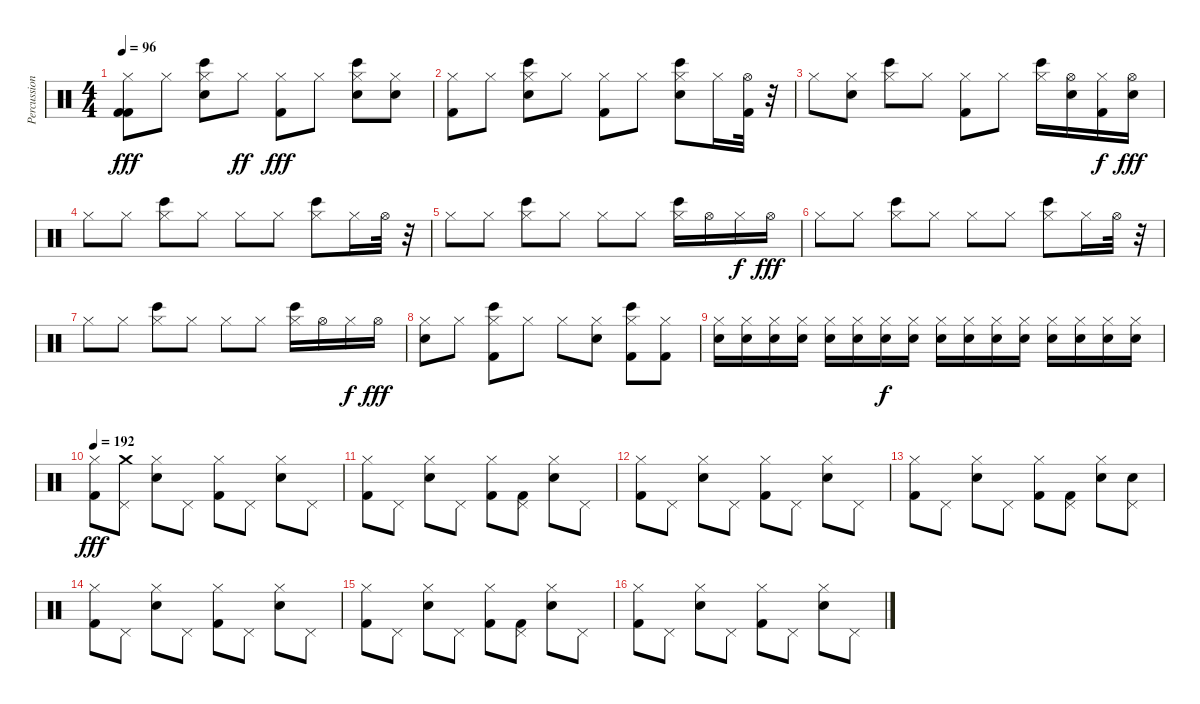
\track ("Percussion" "Percussion") {instrument percussion}
\staff {score}
\articulation defaults
\ts (4 4)
\tempo 96
\clef neutral
\ks c
("Hi-Hat (closed)" "Kick (hit) 2" "Kick (hit) 2").8{dy fff} "Hi-Hat (closed)".8 ("Hi-Hat (closed)" "Bongo High (hit)" "Snare (hit) 2").8 "Hi-Hat (closed)".8{dy ff} ("Hi-Hat (closed)" "Kick (hit) 2").8{dy fff} "Hi-Hat (closed)".8 ("Hi-Hat (closed)" "Bongo High (hit)" "Snare (hit) 2").8 ("Hi-Hat (closed)" "Snare (hit) 2").8 |
("Hi-Hat (closed)" "Kick (hit) 2").8 "Hi-Hat (closed)".8 ("Hi-Hat (closed)" "Bongo High (hit)" "Snare (hit) 2").8 "Hi-Hat (closed)".8 ("Hi-Hat (closed)" "Kick (hit) 2").8 "Hi-Hat (closed)".8 ("Hi-Hat (closed)" "Bongo High (hit)" "Snare (hit) 2").8 "Hi-Hat (closed)".16 ("Hi-Hat (open)" "Kick (hit) 2").32 r.32 |
"Hi-Hat (closed)".8 ("Hi-Hat (closed)" "Snare (hit) 2").8 ("Hi-Hat (closed)" "Bongo High (hit)").8 "Hi-Hat (closed)".8 ("Hi-Hat (closed)" "Kick (hit) 2").8 "Hi-Hat (closed)".8 ("Hi-Hat (closed)" "Bongo High (hit)").16 ("Hi-Hat (open)" "Snare (hit) 2").16 ("Hi-Hat (closed)" "Kick (hit) 2").16{dy f} ("Hi-Hat (open)" "Snare (hit) 2").16{dy fff} |
"Hi-Hat (closed)".8 "Hi-Hat (closed)".8 ("Hi-Hat (closed)" "Bongo High (hit)").8 "Hi-Hat (closed)".8 "Hi-Hat (closed)".8 "Hi-Hat (closed)".8 ("Hi-Hat (closed)" "Bongo High (hit)").8 "Hi-Hat (closed)".16 "Hi-Hat (open)".32 r.32 |
"Hi-Hat (closed)".8 "Hi-Hat (closed)".8 ("Hi-Hat (closed)" "Bongo High (hit)").8 "Hi-Hat (closed)".8 "Hi-Hat (closed)".8 "Hi-Hat (closed)".8 ("Hi-Hat (closed)" "Bongo High (hit)").16 "Hi-Hat (open)".16 "Hi-Hat (closed)".16{dy f} "Hi-Hat (open)".16{dy fff} |
"Hi-Hat (closed)".8 "Hi-Hat (closed)".8 ("Hi-Hat (closed)" "Bongo High (hit)").8 "Hi-Hat (closed)".8 "Hi-Hat (closed)".8 "Hi-Hat (closed)".8 ("Hi-Hat (closed)" "Bongo High (hit)").8 "Hi-Hat (closed)".16 "Hi-Hat (open)".32 r.32 |
"Hi-Hat (closed)".8 "Hi-Hat (closed)".8 ("Hi-Hat (closed)" "Bongo High (hit)").8 "Hi-Hat (closed)".8 "Hi-Hat (closed)".8 "Hi-Hat (closed)".8 ("Hi-Hat (closed)" "Bongo High (hit)").16 "Hi-Hat (open)".16 "Hi-Hat (closed)".16{dy f} "Hi-Hat (open)".16{dy fff} |
("Hi-Hat (closed)" "Snare (hit) 2").8 "Hi-Hat (closed)".8 ("Hi-Hat (closed)" "Bongo High (hit)" "Kick (hit) 2").8 "Hi-Hat (closed)".8 "Hi-Hat (closed)".8 ("Hi-Hat (closed)" "Snare (hit) 2").8 ("Hi-Hat (closed)" "Bongo High (hit)" "Kick (hit) 2").8 ("Hi-Hat (closed)" "Kick (hit) 2").8 |
("Hi-Hat (closed)" "Snare (hit) 2").16 ("Hi-Hat (closed)" "Snare (hit) 2").16 ("Hi-Hat (closed)" "Snare (hit) 2").16 ("Hi-Hat (closed)" "Snare (hit) 2").16 ("Hi-Hat (closed)" "Snare (hit) 2").16 ("Hi-Hat (closed)" "Snare (hit) 2").16 ("Hi-Hat (closed)" "Snare (hit) 2").16{dy f} ("Hi-Hat (closed)" "Snare (hit) 2").16 ("Hi-Hat (closed)" "Snare (hit) 2").16 ("Hi-Hat (closed)" "Snare (hit) 2").16 ("Hi-Hat (closed)" "Snare (hit) 2").16 ("Hi-Hat (closed)" "Snare (hit) 2").16 ("Hi-Hat (closed)" "Snare (hit) 2").16 ("Hi-Hat (closed)" "Snare (hit) 2").16 ("Hi-Hat (closed)" "Snare (hit) 2").16 ("Hi-Hat (closed)" "Snare (hit) 2").16 |
\tempo 192
("Hi-Hat (closed)" "Kick (hit) 2").8{dy fff} ("Pedal Hi-Hat (hit)" "Crash medium (hit)").8 ("Hi-Hat (closed)" "Snare (hit) 2").8 "Pedal Hi-Hat (hit)".8 ("Hi-Hat (closed)" "Kick (hit) 2").8 "Pedal Hi-Hat (hit)".8 ("Hi-Hat (closed)" "Snare (hit) 2").8 "Pedal Hi-Hat (hit)".8 |
("Hi-Hat (closed)" "Kick (hit) 2").8 "Pedal Hi-Hat (hit)".8 ("Hi-Hat (closed)" "Snare (hit) 2").8 "Pedal Hi-Hat (hit)".8 ("Hi-Hat (closed)" "Kick (hit) 2").8 ("Pedal Hi-Hat (hit)" "Kick (hit) 2").8 ("Hi-Hat (closed)" "Snare (hit) 2").8 "Pedal Hi-Hat (hit)".8 |
("Hi-Hat (closed)" "Kick (hit) 2").8 "Pedal Hi-Hat (hit)".8 ("Hi-Hat (closed)" "Snare (hit) 2").8 "Pedal Hi-Hat (hit)".8 ("Hi-Hat (closed)" "Kick (hit) 2").8 "Pedal Hi-Hat (hit)".8 ("Hi-Hat (closed)" "Snare (hit) 2").8 "Pedal Hi-Hat (hit)".8 |
("Hi-Hat (closed)" "Kick (hit) 2").8 "Pedal Hi-Hat (hit)".8 ("Hi-Hat (closed)" "Snare (hit) 2").8 "Pedal Hi-Hat (hit)".8 ("Hi-Hat (closed)" "Kick (hit) 2").8 ("Pedal Hi-Hat (hit)" "Kick (hit) 2").8 ("Hi-Hat (closed)" "Snare (hit) 2").8 ("Pedal Hi-Hat (hit)" "Snare (hit) 2").8 |
("Hi-Hat (closed)" "Kick (hit) 2").8 "Pedal Hi-Hat (hit)".8 ("Hi-Hat (closed)" "Snare (hit) 2").8 "Pedal Hi-Hat (hit)".8 ("Hi-Hat (closed)" "Kick (hit) 2").8 "Pedal Hi-Hat (hit)".8 ("Hi-Hat (closed)" "Snare (hit) 2").8 "Pedal Hi-Hat (hit)".8 |
("Hi-Hat (closed)" "Kick (hit) 2").8 "Pedal Hi-Hat (hit)".8 ("Hi-Hat (closed)" "Snare (hit) 2").8 "Pedal Hi-Hat (hit)".8 ("Hi-Hat (closed)" "Kick (hit) 2").8 ("Pedal Hi-Hat (hit)" "Kick (hit) 2").8 ("Hi-Hat (closed)" "Snare (hit) 2").8 "Pedal Hi-Hat (hit)".8 |
("Hi-Hat (closed)" "Kick (hit) 2").8 "Pedal Hi-Hat (hit)".8 ("Hi-Hat (closed)" "Snare (hit) 2").8 "Pedal Hi-Hat (hit)".8 ("Hi-Hat (closed)" "Kick (hit) 2").8 "Pedal Hi-Hat (hit)".8 ("Hi-Hat (closed)" "Snare (hit) 2").8 "Pedal Hi-Hat (hit)".8
